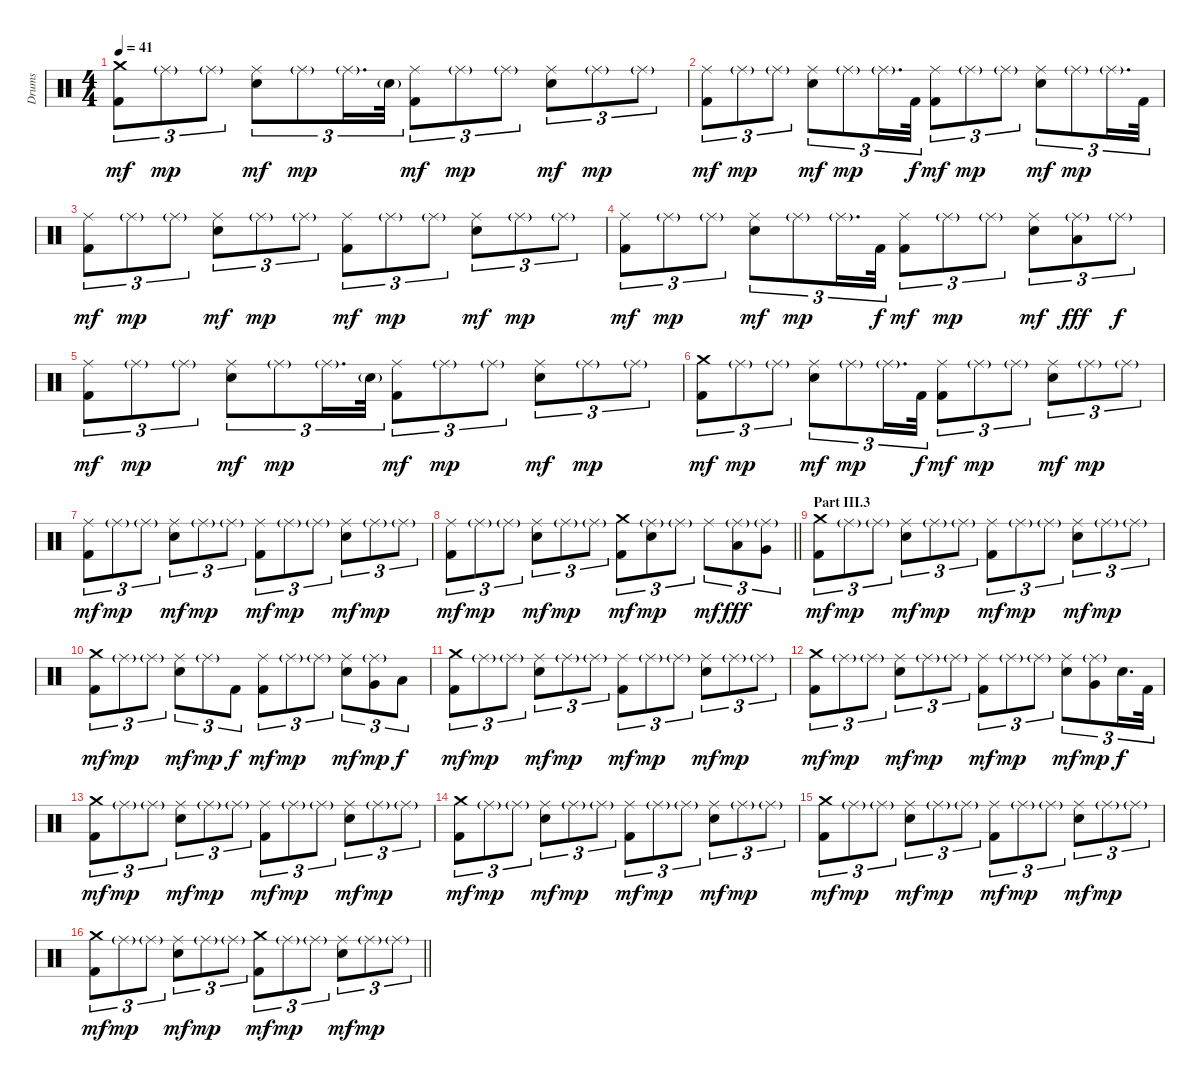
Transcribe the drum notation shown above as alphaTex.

\track ("Drums" "Drums") {instrument percussion}
\staff {score}
\articulation defaults
\ts (4 4)
\tempo 41
\clef neutral
\ks c
("Kick (hit) 2" "Crash medium (hit)").8{tu (3 2) dy mf} "Ride (middle)"{g}.8{tu (3 2) dy mp} "Ride (middle)"{g}.8{tu (3 2)} ("Electric Snare (hit)" "Ride (middle)").8{tu (3 2) dy mf} "Ride (middle)"{g}.8{tu (3 2) dy mp} "Ride (middle)"{g}.16{d tu (3 2)} "Electric Snare (hit)"{g}.32{tu (3 2)} ("Kick (hit) 2" "Ride (middle)").8{tu (3 2) dy mf} "Ride (middle)"{g}.8{tu (3 2) dy mp} "Ride (middle)"{g}.8{tu (3 2)} ("Electric Snare (hit)" "Ride (middle)").8{tu (3 2) dy mf} "Ride (middle)"{g}.8{tu (3 2) dy mp} "Ride (middle)"{g}.8{tu (3 2)} |
("Kick (hit) 2" "Ride (middle)").8{tu (3 2) dy mf} "Ride (middle)"{g}.8{tu (3 2) dy mp} "Ride (middle)"{g}.8{tu (3 2)} ("Electric Snare (hit)" "Ride (middle)").8{tu (3 2) dy mf} "Ride (middle)"{g}.8{tu (3 2) dy mp} "Ride (middle)"{g}.16{d tu (3 2)} "Kick (hit) 2".32{tu (3 2) dy f} ("Kick (hit) 2" "Ride (middle)").8{tu (3 2) dy mf} "Ride (middle)"{g}.8{tu (3 2) dy mp} "Ride (middle)"{g}.8{tu (3 2)} ("Electric Snare (hit)" "Ride (middle)").8{tu (3 2) dy mf} "Ride (middle)"{g}.8{tu (3 2) dy mp} "Ride (middle)"{g}.16{d tu (3 2)} "Kick (hit) 2".32{tu (3 2)} |
("Kick (hit) 2" "Ride (middle)").8{tu (3 2) dy mf} "Ride (middle)"{g}.8{tu (3 2) dy mp} "Ride (middle)"{g}.8{tu (3 2)} ("Electric Snare (hit)" "Ride (middle)").8{tu (3 2) dy mf} "Ride (middle)"{g}.8{tu (3 2) dy mp} "Ride (middle)"{g}.8{tu (3 2)} ("Kick (hit) 2" "Ride (middle)").8{tu (3 2) dy mf} "Ride (middle)"{g}.8{tu (3 2) dy mp} "Ride (middle)"{g}.8{tu (3 2)} ("Electric Snare (hit)" "Ride (middle)").8{tu (3 2) dy mf} "Ride (middle)"{g}.8{tu (3 2) dy mp} "Ride (middle)"{g}.8{tu (3 2)} |
("Kick (hit) 2" "Ride (middle)").8{tu (3 2) dy mf} "Ride (middle)"{g}.8{tu (3 2) dy mp} "Ride (middle)"{g}.8{tu (3 2)} ("Electric Snare (hit)" "Ride (middle)").8{tu (3 2) dy mf} "Ride (middle)"{g}.8{tu (3 2) dy mp} "Ride (middle)"{g}.16{d tu (3 2)} "Kick (hit) 2".32{tu (3 2) dy f} ("Kick (hit) 2" "Ride (middle)").8{tu (3 2) dy mf} "Ride (middle)"{g}.8{tu (3 2) dy mp} "Ride (middle)"{g}.8{tu (3 2)} ("Electric Snare (hit)" "Ride (middle)").8{tu (3 2) dy mf} ("Ride (middle)"{g} "Low Floor Tom (hit)").8{tu (3 2) dy fff} "Ride (middle)"{g}.8{tu (3 2) dy f} |
("Kick (hit) 2" "Ride (middle)").8{tu (3 2) dy mf} "Ride (middle)"{g}.8{tu (3 2) dy mp} "Ride (middle)"{g}.8{tu (3 2)} ("Electric Snare (hit)" "Ride (middle)").8{tu (3 2) dy mf} "Ride (middle)"{g}.8{tu (3 2) dy mp} "Ride (middle)"{g}.16{d tu (3 2)} "Electric Snare (hit)"{g}.32{tu (3 2)} ("Kick (hit) 2" "Ride (middle)").8{tu (3 2) dy mf} "Ride (middle)"{g}.8{tu (3 2) dy mp} "Ride (middle)"{g}.8{tu (3 2)} ("Electric Snare (hit)" "Ride (middle)").8{tu (3 2) dy mf} "Ride (middle)"{g}.8{tu (3 2) dy mp} "Ride (middle)"{g}.8{tu (3 2)} |
("Kick (hit) 2" "Crash medium (hit)").8{tu (3 2) dy mf} "Ride (middle)"{g}.8{tu (3 2) dy mp} "Ride (middle)"{g}.8{tu (3 2)} ("Electric Snare (hit)" "Ride (middle)").8{tu (3 2) dy mf} "Ride (middle)"{g}.8{tu (3 2) dy mp} "Ride (middle)"{g}.16{d tu (3 2)} "Kick (hit) 2".32{tu (3 2) dy f} ("Kick (hit) 2" "Ride (middle)").8{tu (3 2) dy mf} "Ride (middle)"{g}.8{tu (3 2) dy mp} "Ride (middle)"{g}.8{tu (3 2)} ("Electric Snare (hit)" "Ride (middle)").8{tu (3 2) dy mf} "Ride (middle)"{g}.8{tu (3 2) dy mp} "Ride (middle)"{g}.8{tu (3 2)} |
("Kick (hit) 2" "Ride (middle)").8{tu (3 2) dy mf} "Ride (middle)"{g}.8{tu (3 2) dy mp} "Ride (middle)"{g}.8{tu (3 2)} ("Electric Snare (hit)" "Ride (middle)").8{tu (3 2) dy mf} "Ride (middle)"{g}.8{tu (3 2) dy mp} "Ride (middle)"{g}.8{tu (3 2)} ("Kick (hit) 2" "Ride (middle)").8{tu (3 2) dy mf} "Ride (middle)"{g}.8{tu (3 2) dy mp} "Ride (middle)"{g}.8{tu (3 2)} ("Electric Snare (hit)" "Ride (middle)").8{tu (3 2) dy mf} "Ride (middle)"{g}.8{tu (3 2) dy mp} "Ride (middle)"{g}.8{tu (3 2)} |
\barLineRight lightlight
("Kick (hit) 2" "Ride (middle)").8{tu (3 2) dy mf} "Ride (middle)"{g}.8{tu (3 2) dy mp} "Ride (middle)"{g}.8{tu (3 2)} ("Electric Snare (hit)" "Ride (middle)").8{tu (3 2) dy mf} "Ride (middle)"{g}.8{tu (3 2) dy mp} "Ride (middle)"{g}.8{tu (3 2)} ("Kick (hit) 2" "Crash medium (hit)").8{tu (3 2) dy mf} ("Electric Snare (hit)" "Ride (middle)"{g}).8{tu (3 2) dy mp} "Ride (middle)"{g}.8{tu (3 2)} "Ride (middle)".8{tu (3 2) dy mf} ("Ride (middle)"{g} "Low Floor Tom (hit)").8{tu (3 2) dy fff} ("Ride (middle)"{g} "Very Low Tom (hit)").8{tu (3 2)} |
\section ("" "Part III.3")
("Kick (hit) 2" "Crash medium (hit)").8{tu (3 2) dy mf} "Ride (middle)"{g}.8{tu (3 2) dy mp} "Ride (middle)"{g}.8{tu (3 2)} ("Electric Snare (hit)" "Ride (middle)").8{tu (3 2) dy mf} "Ride (middle)"{g}.8{tu (3 2) dy mp} "Ride (middle)"{g}.8{tu (3 2)} ("Kick (hit) 2" "Ride (middle)").8{tu (3 2) dy mf} "Ride (middle)"{g}.8{tu (3 2) dy mp} "Ride (middle)"{g}.8{tu (3 2)} ("Electric Snare (hit)" "Ride (middle)").8{tu (3 2) dy mf} "Ride (middle)"{g}.8{tu (3 2) dy mp} "Ride (middle)"{g}.8{tu (3 2)} |
("Kick (hit) 2" "Crash medium (hit)").8{tu (3 2) dy mf} "Ride (middle)"{g}.8{tu (3 2) dy mp} "Ride (middle)"{g}.8{tu (3 2)} ("Electric Snare (hit)" "Ride (middle)").8{tu (3 2) dy mf} "Ride (middle)"{g}.8{tu (3 2) dy mp} "Kick (hit) 2".8{tu (3 2) dy f} ("Kick (hit) 2" "Ride (middle)").8{tu (3 2) dy mf} "Ride (middle)"{g}.8{tu (3 2) dy mp} "Ride (middle)"{g}.8{tu (3 2)} ("Electric Snare (hit)" "Ride (middle)").8{tu (3 2) dy mf} ("Ride (middle)"{g} "Very Low Tom (hit)").8{tu (3 2) dy mp} "Low Floor Tom (hit)".8{tu (3 2) dy f} |
("Kick (hit) 2" "Crash medium (hit)").8{tu (3 2) dy mf} "Ride (middle)"{g}.8{tu (3 2) dy mp} "Ride (middle)"{g}.8{tu (3 2)} ("Electric Snare (hit)" "Ride (middle)").8{tu (3 2) dy mf} "Ride (middle)"{g}.8{tu (3 2) dy mp} "Ride (middle)"{g}.8{tu (3 2)} ("Kick (hit) 2" "Ride (middle)").8{tu (3 2) dy mf} "Ride (middle)"{g}.8{tu (3 2) dy mp} "Ride (middle)"{g}.8{tu (3 2)} ("Electric Snare (hit)" "Ride (middle)").8{tu (3 2) dy mf} "Ride (middle)"{g}.8{tu (3 2) dy mp} "Ride (middle)"{g}.8{tu (3 2)} |
("Kick (hit) 2" "Crash medium (hit)").8{tu (3 2) dy mf} "Ride (middle)"{g}.8{tu (3 2) dy mp} "Ride (middle)"{g}.8{tu (3 2)} ("Electric Snare (hit)" "Ride (middle)").8{tu (3 2) dy mf} "Ride (middle)"{g}.8{tu (3 2) dy mp} "Ride (middle)"{g}.8{tu (3 2)} ("Kick (hit) 2" "Ride (middle)").8{tu (3 2) dy mf} "Ride (middle)"{g}.8{tu (3 2) dy mp} "Ride (middle)"{g}.8{tu (3 2)} ("Electric Snare (hit)" "Ride (middle)").8{tu (3 2) dy mf} ("Ride (middle)"{g} "Very Low Tom (hit)").8{tu (3 2) dy mp} "Electric Snare (hit)".16{d tu (3 2) dy f} "Kick (hit) 2".32{tu (3 2)} |
("Kick (hit) 2" "Crash medium (hit)").8{tu (3 2) dy mf} "Ride (middle)"{g}.8{tu (3 2) dy mp} "Ride (middle)"{g}.8{tu (3 2)} ("Electric Snare (hit)" "Ride (middle)").8{tu (3 2) dy mf} "Ride (middle)"{g}.8{tu (3 2) dy mp} "Ride (middle)"{g}.8{tu (3 2)} ("Kick (hit) 2" "Ride (middle)").8{tu (3 2) dy mf} "Ride (middle)"{g}.8{tu (3 2) dy mp} "Ride (middle)"{g}.8{tu (3 2)} ("Electric Snare (hit)" "Ride (middle)").8{tu (3 2) dy mf} "Ride (middle)"{g}.8{tu (3 2) dy mp} "Ride (middle)"{g}.8{tu (3 2)} |
("Kick (hit) 2" "Crash medium (hit)").8{tu (3 2) dy mf} "Ride (middle)"{g}.8{tu (3 2) dy mp} "Ride (middle)"{g}.8{tu (3 2)} ("Electric Snare (hit)" "Ride (middle)").8{tu (3 2) dy mf} "Ride (middle)"{g}.8{tu (3 2) dy mp} "Ride (middle)"{g}.8{tu (3 2)} ("Kick (hit) 2" "Ride (middle)").8{tu (3 2) dy mf} "Ride (middle)"{g}.8{tu (3 2) dy mp} "Ride (middle)"{g}.8{tu (3 2)} ("Electric Snare (hit)" "Ride (middle)").8{tu (3 2) dy mf} "Ride (middle)"{g}.8{tu (3 2) dy mp} "Ride (middle)"{g}.8{tu (3 2)} |
("Kick (hit) 2" "Crash medium (hit)").8{tu (3 2) dy mf} "Ride (middle)"{g}.8{tu (3 2) dy mp} "Ride (middle)"{g}.8{tu (3 2)} ("Electric Snare (hit)" "Ride (middle)").8{tu (3 2) dy mf} "Ride (middle)"{g}.8{tu (3 2) dy mp} "Ride (middle)"{g}.8{tu (3 2)} ("Kick (hit) 2" "Ride (middle)").8{tu (3 2) dy mf} "Ride (middle)"{g}.8{tu (3 2) dy mp} "Ride (middle)"{g}.8{tu (3 2)} ("Electric Snare (hit)" "Ride (middle)").8{tu (3 2) dy mf} "Ride (middle)"{g}.8{tu (3 2) dy mp} "Ride (middle)"{g}.8{tu (3 2)} |
\barLineRight lightlight
("Kick (hit) 2" "Crash medium (hit)").8{tu (3 2) dy mf} "Ride (middle)"{g}.8{tu (3 2) dy mp} "Ride (middle)"{g}.8{tu (3 2)} ("Electric Snare (hit)" "Ride (middle)").8{tu (3 2) dy mf} "Ride (middle)"{g}.8{tu (3 2) dy mp} "Ride (middle)"{g}.8{tu (3 2)} ("Kick (hit) 2" "Crash medium (hit)").8{tu (3 2) dy mf} "Ride (middle)"{g}.8{tu (3 2) dy mp} "Ride (middle)"{g}.8{tu (3 2)} ("Electric Snare (hit)" "Ride (middle)").8{tu (3 2) dy mf} "Ride (middle)"{g}.8{tu (3 2) dy mp} "Ride (middle)"{g}.8{tu (3 2)}
